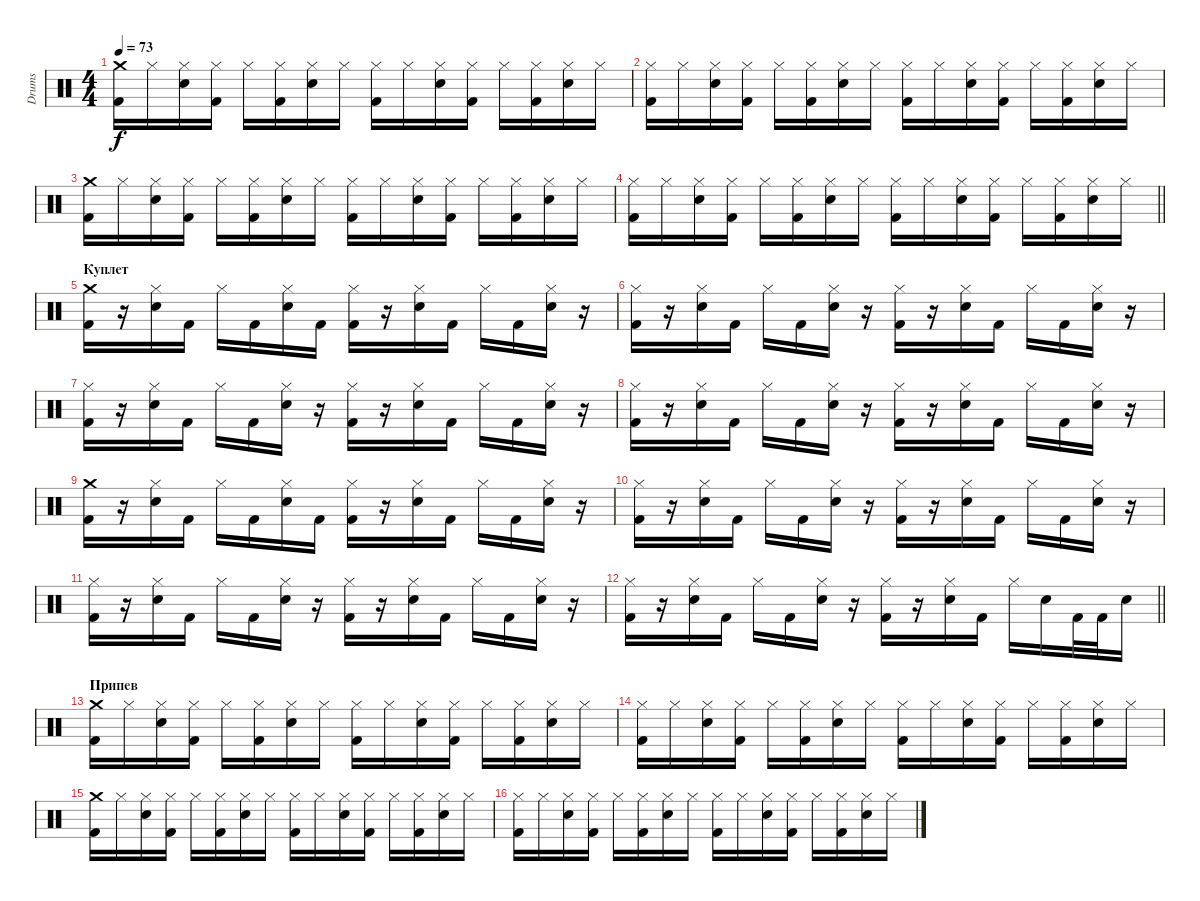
\track ("Drums" "Drums") {instrument percussion}
\staff {score}
\articulation defaults
\ts (4 4)
\tempo 73
\clef neutral
\ks c
("Crash medium (hit)" "Kick (hit) 2").16{dy f} "Hi-Hat (closed)".16 ("Hi-Hat (closed)" "Snare (hit) 2").16 ("Hi-Hat (closed)" "Kick (hit) 2").16 "Hi-Hat (closed)".16 ("Hi-Hat (closed)" "Kick (hit) 2").16 ("Hi-Hat (closed)" "Snare (hit) 2").16 "Hi-Hat (closed)".16 ("Hi-Hat (closed)" "Kick (hit) 2").16 "Hi-Hat (closed)".16 ("Hi-Hat (closed)" "Snare (hit) 2").16 ("Hi-Hat (closed)" "Kick (hit) 2").16 "Hi-Hat (closed)".16 ("Hi-Hat (closed)" "Kick (hit) 2").16 ("Hi-Hat (closed)" "Snare (hit) 2").16 "Hi-Hat (closed)".16 |
("Hi-Hat (closed)" "Kick (hit) 2").16 "Hi-Hat (closed)".16 ("Hi-Hat (closed)" "Snare (hit) 2").16 ("Hi-Hat (closed)" "Kick (hit) 2").16 "Hi-Hat (closed)".16 ("Hi-Hat (closed)" "Kick (hit) 2").16 ("Hi-Hat (closed)" "Snare (hit) 2").16 "Hi-Hat (closed)".16 ("Hi-Hat (closed)" "Kick (hit) 2").16 "Hi-Hat (closed)".16 ("Hi-Hat (closed)" "Snare (hit) 2").16 ("Hi-Hat (closed)" "Kick (hit) 2").16 "Hi-Hat (closed)".16 ("Hi-Hat (closed)" "Kick (hit) 2").16 ("Hi-Hat (closed)" "Snare (hit) 2").16 "Hi-Hat (closed)".16 |
("Crash medium (hit)" "Kick (hit) 2").16 "Hi-Hat (closed)".16 ("Hi-Hat (closed)" "Snare (hit) 2").16 ("Hi-Hat (closed)" "Kick (hit) 2").16 "Hi-Hat (closed)".16 ("Hi-Hat (closed)" "Kick (hit) 2").16 ("Hi-Hat (closed)" "Snare (hit) 2").16 "Hi-Hat (closed)".16 ("Hi-Hat (closed)" "Kick (hit) 2").16 "Hi-Hat (closed)".16 ("Hi-Hat (closed)" "Snare (hit) 2").16 ("Hi-Hat (closed)" "Kick (hit) 2").16 "Hi-Hat (closed)".16 ("Hi-Hat (closed)" "Kick (hit) 2").16 ("Hi-Hat (closed)" "Snare (hit) 2").16 "Hi-Hat (closed)".16 |
\barLineRight lightlight
("Hi-Hat (closed)" "Kick (hit) 2").16 "Hi-Hat (closed)".16 ("Hi-Hat (closed)" "Snare (hit) 2").16 ("Hi-Hat (closed)" "Kick (hit) 2").16 "Hi-Hat (closed)".16 ("Hi-Hat (closed)" "Kick (hit) 2").16 ("Hi-Hat (closed)" "Snare (hit) 2").16 "Hi-Hat (closed)".16 ("Hi-Hat (closed)" "Kick (hit) 2").16 "Hi-Hat (closed)".16 ("Hi-Hat (closed)" "Snare (hit) 2").16 ("Hi-Hat (closed)" "Kick (hit) 2").16 "Hi-Hat (closed)".16 ("Hi-Hat (closed)" "Kick (hit) 2").16 ("Hi-Hat (closed)" "Snare (hit) 2").16 "Hi-Hat (closed)".16 |
\section ("" "Куплет")
("Crash medium (hit)" "Kick (hit) 2").16 r.16 ("Hi-Hat (closed)" "Snare (hit) 2").16 "Kick (hit) 2".16 "Hi-Hat (closed)".16 "Kick (hit) 2".16 ("Hi-Hat (closed)" "Snare (hit) 2").16 "Kick (hit) 2".16 ("Hi-Hat (closed)" "Kick (hit) 2").16 r.16 ("Hi-Hat (closed)" "Snare (hit) 2").16 "Kick (hit) 2".16 "Hi-Hat (closed)".16 "Kick (hit) 2".16 ("Hi-Hat (closed)" "Snare (hit) 2").16 r.16 |
("Hi-Hat (closed)" "Kick (hit) 2").16 r.16 ("Hi-Hat (closed)" "Snare (hit) 2").16 "Kick (hit) 2".16 "Hi-Hat (closed)".16 "Kick (hit) 2".16 ("Hi-Hat (closed)" "Snare (hit) 2").16 r.16 ("Hi-Hat (closed)" "Kick (hit) 2").16 r.16 ("Hi-Hat (closed)" "Snare (hit) 2").16 "Kick (hit) 2".16 "Hi-Hat (closed)".16 "Kick (hit) 2".16 ("Hi-Hat (closed)" "Snare (hit) 2").16 r.16 |
("Hi-Hat (closed)" "Kick (hit) 2").16 r.16 ("Hi-Hat (closed)" "Snare (hit) 2").16 "Kick (hit) 2".16 "Hi-Hat (closed)".16 "Kick (hit) 2".16 ("Hi-Hat (closed)" "Snare (hit) 2").16 r.16 ("Hi-Hat (closed)" "Kick (hit) 2").16 r.16 ("Hi-Hat (closed)" "Snare (hit) 2").16 "Kick (hit) 2".16 "Hi-Hat (closed)".16 "Kick (hit) 2".16 ("Hi-Hat (closed)" "Snare (hit) 2").16 r.16 |
("Hi-Hat (closed)" "Kick (hit) 2").16 r.16 ("Hi-Hat (closed)" "Snare (hit) 2").16 "Kick (hit) 2".16 "Hi-Hat (closed)".16 "Kick (hit) 2".16 ("Hi-Hat (closed)" "Snare (hit) 2").16 r.16 ("Hi-Hat (closed)" "Kick (hit) 2").16 r.16 ("Hi-Hat (closed)" "Snare (hit) 2").16 "Kick (hit) 2".16 "Hi-Hat (closed)".16 "Kick (hit) 2".16 ("Hi-Hat (closed)" "Snare (hit) 2").16 r.16 |
("Crash medium (hit)" "Kick (hit) 2").16 r.16 ("Hi-Hat (closed)" "Snare (hit) 2").16 "Kick (hit) 2".16 "Hi-Hat (closed)".16 "Kick (hit) 2".16 ("Hi-Hat (closed)" "Snare (hit) 2").16 "Kick (hit) 2".16 ("Hi-Hat (closed)" "Kick (hit) 2").16 r.16 ("Hi-Hat (closed)" "Snare (hit) 2").16 "Kick (hit) 2".16 "Hi-Hat (closed)".16 "Kick (hit) 2".16 ("Hi-Hat (closed)" "Snare (hit) 2").16 r.16 |
("Hi-Hat (closed)" "Kick (hit) 2").16 r.16 ("Hi-Hat (closed)" "Snare (hit) 2").16 "Kick (hit) 2".16 "Hi-Hat (closed)".16 "Kick (hit) 2".16 ("Hi-Hat (closed)" "Snare (hit) 2").16 r.16 ("Hi-Hat (closed)" "Kick (hit) 2").16 r.16 ("Hi-Hat (closed)" "Snare (hit) 2").16 "Kick (hit) 2".16 "Hi-Hat (closed)".16 "Kick (hit) 2".16 ("Hi-Hat (closed)" "Snare (hit) 2").16 r.16 |
("Hi-Hat (closed)" "Kick (hit) 2").16 r.16 ("Hi-Hat (closed)" "Snare (hit) 2").16 "Kick (hit) 2".16 "Hi-Hat (closed)".16 "Kick (hit) 2".16 ("Hi-Hat (closed)" "Snare (hit) 2").16 r.16 ("Hi-Hat (closed)" "Kick (hit) 2").16 r.16 ("Hi-Hat (closed)" "Snare (hit) 2").16 "Kick (hit) 2".16 "Hi-Hat (closed)".16 "Kick (hit) 2".16 ("Hi-Hat (closed)" "Snare (hit) 2").16 r.16 |
\barLineRight lightlight
("Hi-Hat (closed)" "Kick (hit) 2").16 r.16 ("Hi-Hat (closed)" "Snare (hit) 2").16 "Kick (hit) 2".16 "Hi-Hat (closed)".16 "Kick (hit) 2".16 ("Hi-Hat (closed)" "Snare (hit) 2").16 r.16 ("Hi-Hat (closed)" "Kick (hit) 2").16 r.16 ("Hi-Hat (closed)" "Snare (hit) 2").16 "Kick (hit) 2".16 "Hi-Hat (closed)".16 "Snare (hit) 2".16 "Kick (hit) 2".32 "Kick (hit) 2".32 "Snare (hit) 2".16 |
\section ("" "Припев")
("Crash medium (hit)" "Kick (hit) 2").16 "Hi-Hat (closed)".16 ("Hi-Hat (closed)" "Snare (hit) 2").16 ("Hi-Hat (closed)" "Kick (hit) 2").16 "Hi-Hat (closed)".16 ("Hi-Hat (closed)" "Kick (hit) 2").16 ("Hi-Hat (closed)" "Snare (hit) 2").16 "Hi-Hat (closed)".16 ("Hi-Hat (closed)" "Kick (hit) 2").16 "Hi-Hat (closed)".16 ("Hi-Hat (closed)" "Snare (hit) 2").16 ("Hi-Hat (closed)" "Kick (hit) 2").16 "Hi-Hat (closed)".16 ("Hi-Hat (closed)" "Kick (hit) 2").16 ("Hi-Hat (closed)" "Snare (hit) 2").16 "Hi-Hat (closed)".16 |
("Hi-Hat (closed)" "Kick (hit) 2").16 "Hi-Hat (closed)".16 ("Hi-Hat (closed)" "Snare (hit) 2").16 ("Hi-Hat (closed)" "Kick (hit) 2").16 "Hi-Hat (closed)".16 ("Hi-Hat (closed)" "Kick (hit) 2").16 ("Hi-Hat (closed)" "Snare (hit) 2").16 "Hi-Hat (closed)".16 ("Hi-Hat (closed)" "Kick (hit) 2").16 "Hi-Hat (closed)".16 ("Hi-Hat (closed)" "Snare (hit) 2").16 ("Hi-Hat (closed)" "Kick (hit) 2").16 "Hi-Hat (closed)".16 ("Hi-Hat (closed)" "Kick (hit) 2").16 ("Hi-Hat (closed)" "Snare (hit) 2").16 "Hi-Hat (closed)".16 |
("Crash medium (hit)" "Kick (hit) 2").16 "Hi-Hat (closed)".16 ("Hi-Hat (closed)" "Snare (hit) 2").16 ("Hi-Hat (closed)" "Kick (hit) 2").16 "Hi-Hat (closed)".16 ("Hi-Hat (closed)" "Kick (hit) 2").16 ("Hi-Hat (closed)" "Snare (hit) 2").16 "Hi-Hat (closed)".16 ("Hi-Hat (closed)" "Kick (hit) 2").16 "Hi-Hat (closed)".16 ("Hi-Hat (closed)" "Snare (hit) 2").16 ("Hi-Hat (closed)" "Kick (hit) 2").16 "Hi-Hat (closed)".16 ("Hi-Hat (closed)" "Kick (hit) 2").16 ("Hi-Hat (closed)" "Snare (hit) 2").16 "Hi-Hat (closed)".16 |
("Hi-Hat (closed)" "Kick (hit) 2").16 "Hi-Hat (closed)".16 ("Hi-Hat (closed)" "Snare (hit) 2").16 ("Hi-Hat (closed)" "Kick (hit) 2").16 "Hi-Hat (closed)".16 ("Hi-Hat (closed)" "Kick (hit) 2").16 ("Hi-Hat (closed)" "Snare (hit) 2").16 "Hi-Hat (closed)".16 ("Hi-Hat (closed)" "Kick (hit) 2").16 "Hi-Hat (closed)".16 ("Hi-Hat (closed)" "Snare (hit) 2").16 ("Hi-Hat (closed)" "Kick (hit) 2").16 "Hi-Hat (closed)".16 ("Hi-Hat (closed)" "Kick (hit) 2").16 ("Hi-Hat (closed)" "Snare (hit) 2").16 "Hi-Hat (closed)".16
